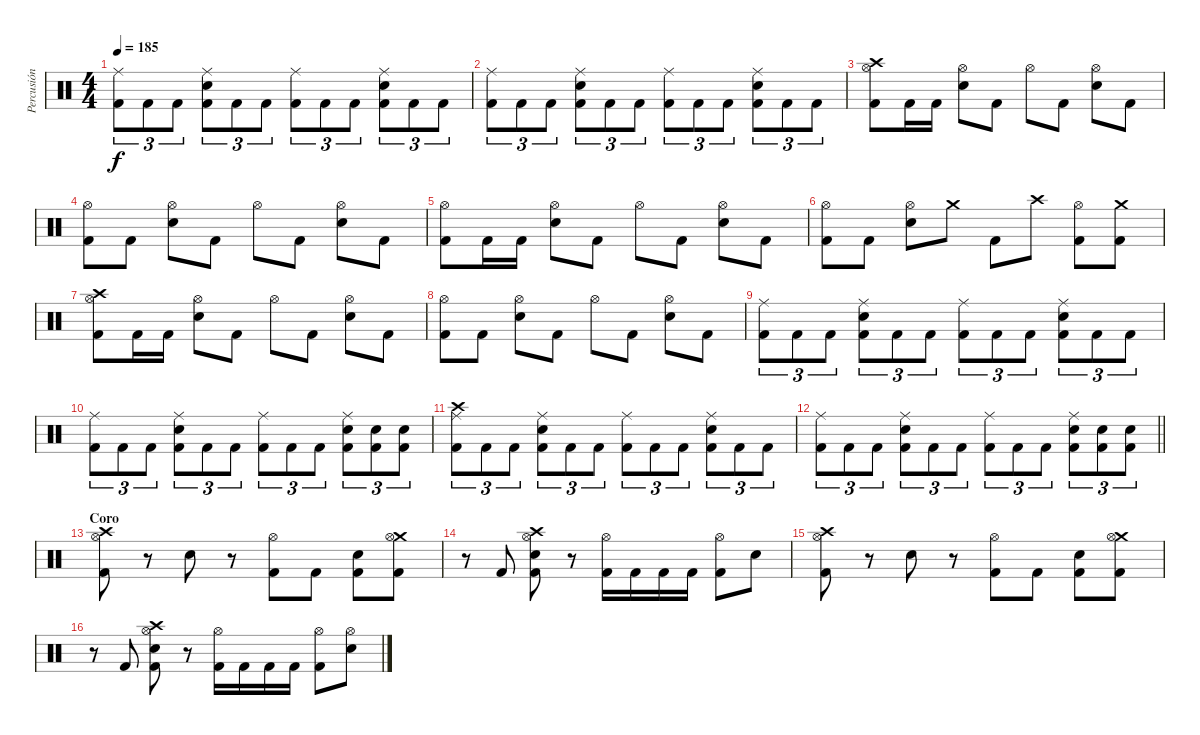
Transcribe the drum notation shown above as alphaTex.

\track ("Percusión" "Percusión") {instrument percussion}
\staff {score}
\articulation defaults
\ts (4 4)
\tempo 185
\clef neutral
\ks c
("Ride (middle)" "Kick (hit) 2").8{tu (3 2) dy f} "Kick (hit) 2".8{tu (3 2)} "Kick (hit) 2".8{tu (3 2)} ("Ride (middle)" "Snare (hit) 2" "Kick (hit) 2").8{tu (3 2)} "Kick (hit) 2".8{tu (3 2)} "Kick (hit) 2".8{tu (3 2)} ("Ride (middle)" "Kick (hit) 2").8{tu (3 2)} "Kick (hit) 2".8{tu (3 2)} "Kick (hit) 2".8{tu (3 2)} ("Ride (middle)" "Snare (hit) 2" "Kick (hit) 2").8{tu (3 2)} "Kick (hit) 2".8{tu (3 2)} "Kick (hit) 2".8{tu (3 2)} |
("Ride (middle)" "Kick (hit) 2").8{tu (3 2)} "Kick (hit) 2".8{tu (3 2)} "Kick (hit) 2".8{tu (3 2)} ("Ride (middle)" "Snare (hit) 2" "Kick (hit) 2").8{tu (3 2)} "Kick (hit) 2".8{tu (3 2)} "Kick (hit) 2".8{tu (3 2)} ("Ride (middle)" "Kick (hit) 2").8{tu (3 2)} "Kick (hit) 2".8{tu (3 2)} "Kick (hit) 2".8{tu (3 2)} ("Ride (middle)" "Snare (hit) 2" "Kick (hit) 2").8{tu (3 2)} "Kick (hit) 2".8{tu (3 2)} "Kick (hit) 2".8{tu (3 2)} |
("Crash high (hit)" "Hi-Hat (open)" "Kick (hit) 2").8 "Kick (hit) 2".16 "Kick (hit) 2".16 ("Hi-Hat (open)" "Snare (hit) 2").8 "Kick (hit) 2".8 "Hi-Hat (open)".8 "Kick (hit) 2".8 ("Hi-Hat (open)" "Snare (hit) 2").8 "Kick (hit) 2".8 |
("Hi-Hat (open)" "Kick (hit) 2").8 "Kick (hit) 2".8 ("Hi-Hat (open)" "Snare (hit) 2").8 "Kick (hit) 2".8 "Hi-Hat (open)".8 "Kick (hit) 2".8 ("Hi-Hat (open)" "Snare (hit) 2").8 "Kick (hit) 2".8 |
("Hi-Hat (open)" "Kick (hit) 2").8 "Kick (hit) 2".16 "Kick (hit) 2".16 ("Hi-Hat (open)" "Snare (hit) 2").8 "Kick (hit) 2".8 "Hi-Hat (open)".8 "Kick (hit) 2".8 ("Hi-Hat (open)" "Snare (hit) 2").8 "Kick (hit) 2".8 |
("Hi-Hat (open)" "Kick (hit) 2").8 "Kick (hit) 2".8 ("Hi-Hat (open)" "Snare (hit) 2").8 "Crash medium (hit)".8 "Kick (hit) 2".8 "Crash high (hit)".8 ("Hi-Hat (open)" "Kick (hit) 2").8 ("Crash medium (hit)" "Kick (hit) 2").8 |
("Crash high (hit)" "Hi-Hat (open)" "Kick (hit) 2").8 "Kick (hit) 2".16 "Kick (hit) 2".16 ("Hi-Hat (open)" "Snare (hit) 2").8 "Kick (hit) 2".8 "Hi-Hat (open)".8 "Kick (hit) 2".8 ("Hi-Hat (open)" "Snare (hit) 2").8 "Kick (hit) 2".8 |
("Hi-Hat (open)" "Kick (hit) 2").8 "Kick (hit) 2".8 ("Hi-Hat (open)" "Snare (hit) 2").8 "Kick (hit) 2".8 "Hi-Hat (open)".8 "Kick (hit) 2".8 ("Hi-Hat (open)" "Snare (hit) 2").8 "Kick (hit) 2".8 |
("Ride (middle)" "Kick (hit) 2").8{tu (3 2)} "Kick (hit) 2".8{tu (3 2)} "Kick (hit) 2".8{tu (3 2)} ("Ride (middle)" "Snare (hit) 2" "Kick (hit) 2").8{tu (3 2)} "Kick (hit) 2".8{tu (3 2)} "Kick (hit) 2".8{tu (3 2)} ("Ride (middle)" "Kick (hit) 2").8{tu (3 2)} "Kick (hit) 2".8{tu (3 2)} "Kick (hit) 2".8{tu (3 2)} ("Ride (middle)" "Snare (hit) 2" "Kick (hit) 2").8{tu (3 2)} "Kick (hit) 2".8{tu (3 2)} "Kick (hit) 2".8{tu (3 2)} |
("Ride (middle)" "Kick (hit) 2").8{tu (3 2)} "Kick (hit) 2".8{tu (3 2)} "Kick (hit) 2".8{tu (3 2)} ("Ride (middle)" "Snare (hit) 2" "Kick (hit) 2").8{tu (3 2)} "Kick (hit) 2".8{tu (3 2)} "Kick (hit) 2".8{tu (3 2)} ("Ride (middle)" "Kick (hit) 2").8{tu (3 2)} "Kick (hit) 2".8{tu (3 2)} "Kick (hit) 2".8{tu (3 2)} ("Ride (middle)" "Snare (hit) 2" "Kick (hit) 2").8{tu (3 2)} ("Snare (hit) 2" "Kick (hit) 2").8{tu (3 2)} ("Snare (hit) 2" "Kick (hit) 2").8{tu (3 2)} |
("Crash high (hit)" "Ride (middle)" "Kick (hit) 2").8{tu (3 2)} "Kick (hit) 2".8{tu (3 2)} "Kick (hit) 2".8{tu (3 2)} ("Ride (middle)" "Snare (hit) 2" "Kick (hit) 2").8{tu (3 2)} "Kick (hit) 2".8{tu (3 2)} "Kick (hit) 2".8{tu (3 2)} ("Ride (middle)" "Kick (hit) 2").8{tu (3 2)} "Kick (hit) 2".8{tu (3 2)} "Kick (hit) 2".8{tu (3 2)} ("Ride (middle)" "Snare (hit) 2" "Kick (hit) 2").8{tu (3 2)} "Kick (hit) 2".8{tu (3 2)} "Kick (hit) 2".8{tu (3 2)} |
\barLineRight lightlight
("Ride (middle)" "Kick (hit) 2").8{tu (3 2)} "Kick (hit) 2".8{tu (3 2)} "Kick (hit) 2".8{tu (3 2)} ("Ride (middle)" "Snare (hit) 2" "Kick (hit) 2").8{tu (3 2)} "Kick (hit) 2".8{tu (3 2)} "Kick (hit) 2".8{tu (3 2)} ("Ride (middle)" "Kick (hit) 2").8{tu (3 2)} "Kick (hit) 2".8{tu (3 2)} "Kick (hit) 2".8{tu (3 2)} ("Ride (middle)" "Snare (hit) 2" "Kick (hit) 2").8{tu (3 2)} ("Snare (hit) 2" "Kick (hit) 2").8{tu (3 2)} ("Snare (hit) 2" "Kick (hit) 2").8{tu (3 2)} |
\section ("" "Coro")
("Crash high (hit)" "Hi-Hat (open)" "Kick (hit) 2").8 r.8 "Snare (hit) 2".8 r.8 ("Hi-Hat (open)" "Kick (hit) 2").8 "Kick (hit) 2".8 ("Snare (hit) 2" "Kick (hit) 2").8 ("Crash medium (hit)" "Hi-Hat (open)" "Kick (hit) 2").8 |
r.8 "Kick (hit) 2".8 ("Crash high (hit)" "Hi-Hat (open)" "Snare (hit) 2" "Kick (hit) 2").8 r.8 ("Hi-Hat (open)" "Kick (hit) 2").16 "Kick (hit) 2".16 "Kick (hit) 2".16 "Kick (hit) 2".16 ("Hi-Hat (open)" "Kick (hit) 2").8 "Snare (hit) 2".8 |
("Crash high (hit)" "Hi-Hat (open)" "Kick (hit) 2").8 r.8 "Snare (hit) 2".8 r.8 ("Hi-Hat (open)" "Kick (hit) 2").8 "Kick (hit) 2".8 ("Snare (hit) 2" "Kick (hit) 2").8 ("Crash medium (hit)" "Hi-Hat (open)" "Kick (hit) 2").8 |
r.8 "Kick (hit) 2".8 ("Crash high (hit)" "Hi-Hat (open)" "Snare (hit) 2" "Kick (hit) 2").8 r.8 ("Hi-Hat (open)" "Kick (hit) 2").16 "Kick (hit) 2".16 "Kick (hit) 2".16 "Kick (hit) 2".16 ("Hi-Hat (open)" "Kick (hit) 2").8 ("Hi-Hat (open)" "Snare (hit) 2").8
